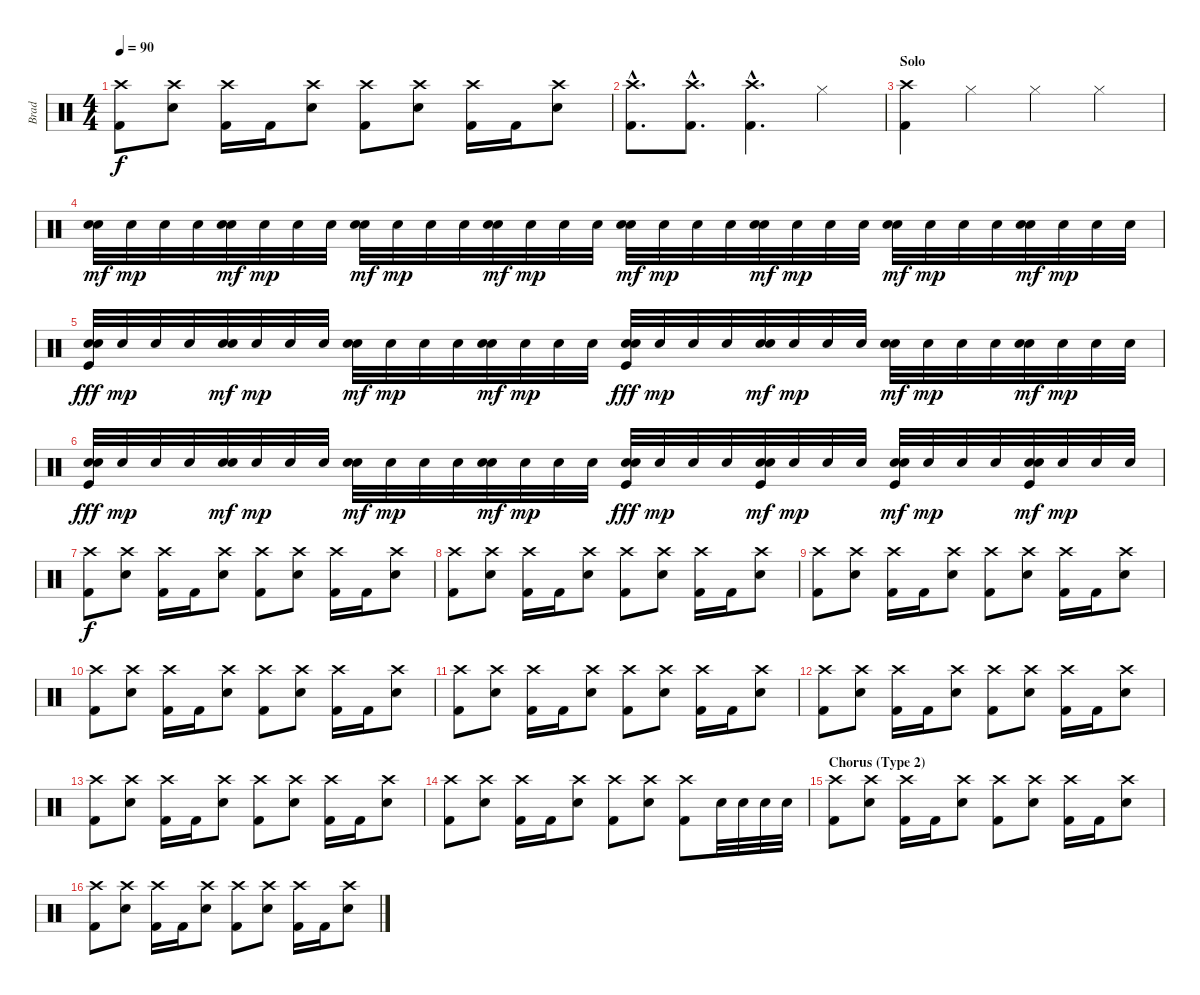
\track ("Brad" "Brad") {instrument percussion}
\staff {score}
\articulation defaults
\ts (4 4)
\tempo 90
\clef neutral
\ks c
("Crash high (hit)" "Kick (hit) 2").8{dy f} ("Crash high (hit)" "Electric Snare (hit)").8 ("Crash high (hit)" "Kick (hit) 2").16 "Kick (hit) 2".16 ("Crash high (hit)" "Electric Snare (hit)").8 ("Crash high (hit)" "Kick (hit) 2").8 ("Crash high (hit)" "Electric Snare (hit)").8 ("Crash high (hit)" "Kick (hit) 2").16 "Kick (hit) 2".16 ("Crash high (hit)" "Electric Snare (hit)").8 |
("Crash high (hit)"{hac} "Kick (hit) 2"{hac}).8{d} ("Crash high (hit)"{hac} "Kick (hit) 2"{hac}).8{d} ("Crash high (hit)"{hac} "Kick (hit) 2"{hac}).4{d} "Hi-Hat (closed)".4 |
\section ("" "Solo")
("Crash high (hit)" "Kick (hit) 2").4 "Hi-Hat (closed)".4 "Hi-Hat (closed)".4 "Hi-Hat (closed)".4 |
("Electric Snare (hit)" "Electric Snare (hit)").32{dy mf} "Electric Snare (hit)".32{dy mp} "Electric Snare (hit)".32 "Electric Snare (hit)".32 ("Electric Snare (hit)" "Electric Snare (hit)").32{dy mf} "Electric Snare (hit)".32{dy mp} "Electric Snare (hit)".32 "Electric Snare (hit)".32 ("Electric Snare (hit)" "Electric Snare (hit)").32{dy mf} "Electric Snare (hit)".32{dy mp} "Electric Snare (hit)".32 "Electric Snare (hit)".32 ("Electric Snare (hit)" "Electric Snare (hit)").32{dy mf} "Electric Snare (hit)".32{dy mp} "Electric Snare (hit)".32 "Electric Snare (hit)".32 ("Electric Snare (hit)" "Electric Snare (hit)").32{dy mf} "Electric Snare (hit)".32{dy mp} "Electric Snare (hit)".32 "Electric Snare (hit)".32 ("Electric Snare (hit)" "Electric Snare (hit)").32{dy mf} "Electric Snare (hit)".32{dy mp} "Electric Snare (hit)".32 "Electric Snare (hit)".32 ("Electric Snare (hit)" "Electric Snare (hit)").32{dy mf} "Electric Snare (hit)".32{dy mp} "Electric Snare (hit)".32 "Electric Snare (hit)".32 ("Electric Snare (hit)" "Electric Snare (hit)").32{dy mf} "Electric Snare (hit)".32{dy mp} "Electric Snare (hit)".32 "Electric Snare (hit)".32 |
("Electric Snare (hit)" "Electric Snare (hit)" "Kick (hit)").32{dy fff} "Electric Snare (hit)".32{dy mp} "Electric Snare (hit)".32 "Electric Snare (hit)".32 ("Electric Snare (hit)" "Electric Snare (hit)").32{dy mf} "Electric Snare (hit)".32{dy mp} "Electric Snare (hit)".32 "Electric Snare (hit)".32 ("Electric Snare (hit)" "Electric Snare (hit)").32{dy mf} "Electric Snare (hit)".32{dy mp} "Electric Snare (hit)".32 "Electric Snare (hit)".32 ("Electric Snare (hit)" "Electric Snare (hit)").32{dy mf} "Electric Snare (hit)".32{dy mp} "Electric Snare (hit)".32 "Electric Snare (hit)".32 ("Electric Snare (hit)" "Electric Snare (hit)" "Kick (hit)").32{dy fff} "Electric Snare (hit)".32{dy mp} "Electric Snare (hit)".32 "Electric Snare (hit)".32 ("Electric Snare (hit)" "Electric Snare (hit)").32{dy mf} "Electric Snare (hit)".32{dy mp} "Electric Snare (hit)".32 "Electric Snare (hit)".32 ("Electric Snare (hit)" "Electric Snare (hit)").32{dy mf} "Electric Snare (hit)".32{dy mp} "Electric Snare (hit)".32 "Electric Snare (hit)".32 ("Electric Snare (hit)" "Electric Snare (hit)").32{dy mf} "Electric Snare (hit)".32{dy mp} "Electric Snare (hit)".32 "Electric Snare (hit)".32 |
("Electric Snare (hit)" "Electric Snare (hit)" "Kick (hit)").32{dy fff} "Electric Snare (hit)".32{dy mp} "Electric Snare (hit)".32 "Electric Snare (hit)".32 ("Electric Snare (hit)" "Electric Snare (hit)").32{dy mf} "Electric Snare (hit)".32{dy mp} "Electric Snare (hit)".32 "Electric Snare (hit)".32 ("Electric Snare (hit)" "Electric Snare (hit)").32{dy mf} "Electric Snare (hit)".32{dy mp} "Electric Snare (hit)".32 "Electric Snare (hit)".32 ("Electric Snare (hit)" "Electric Snare (hit)").32{dy mf} "Electric Snare (hit)".32{dy mp} "Electric Snare (hit)".32 "Electric Snare (hit)".32 ("Electric Snare (hit)" "Electric Snare (hit)" "Kick (hit)").32{dy fff} "Electric Snare (hit)".32{dy mp} "Electric Snare (hit)".32 "Electric Snare (hit)".32 ("Electric Snare (hit)" "Electric Snare (hit)" "Kick (hit)").32{dy mf} "Electric Snare (hit)".32{dy mp} "Electric Snare (hit)".32 "Electric Snare (hit)".32 ("Electric Snare (hit)" "Electric Snare (hit)" "Kick (hit)").32{dy mf} "Electric Snare (hit)".32{dy mp} "Electric Snare (hit)".32 "Electric Snare (hit)".32 ("Electric Snare (hit)" "Electric Snare (hit)" "Kick (hit)").32{dy mf} "Electric Snare (hit)".32{dy mp} "Electric Snare (hit)".32 "Electric Snare (hit)".32 |
("Crash high (hit)" "Kick (hit) 2").8{dy f} ("Crash high (hit)" "Electric Snare (hit)").8 ("Crash high (hit)" "Kick (hit) 2").16 "Kick (hit) 2".16 ("Crash high (hit)" "Electric Snare (hit)").8 ("Crash high (hit)" "Kick (hit) 2").8 ("Crash high (hit)" "Electric Snare (hit)").8 ("Crash high (hit)" "Kick (hit) 2").16 "Kick (hit) 2".16 ("Crash high (hit)" "Electric Snare (hit)").8 |
("Crash high (hit)" "Kick (hit) 2").8 ("Crash high (hit)" "Electric Snare (hit)").8 ("Crash high (hit)" "Kick (hit) 2").16 "Kick (hit) 2".16 ("Crash high (hit)" "Electric Snare (hit)").8 ("Crash high (hit)" "Kick (hit) 2").8 ("Crash high (hit)" "Electric Snare (hit)").8 ("Crash high (hit)" "Kick (hit) 2").16 "Kick (hit) 2".16 ("Crash high (hit)" "Electric Snare (hit)").8 |
("Crash high (hit)" "Kick (hit) 2").8 ("Crash high (hit)" "Electric Snare (hit)").8 ("Crash high (hit)" "Kick (hit) 2").16 "Kick (hit) 2".16 ("Crash high (hit)" "Electric Snare (hit)").8 ("Crash high (hit)" "Kick (hit) 2").8 ("Crash high (hit)" "Electric Snare (hit)").8 ("Crash high (hit)" "Kick (hit) 2").16 "Kick (hit) 2".16 ("Crash high (hit)" "Electric Snare (hit)").8 |
("Crash high (hit)" "Kick (hit) 2").8 ("Crash high (hit)" "Electric Snare (hit)").8 ("Crash high (hit)" "Kick (hit) 2").16 "Kick (hit) 2".16 ("Crash high (hit)" "Electric Snare (hit)").8 ("Crash high (hit)" "Kick (hit) 2").8 ("Crash high (hit)" "Electric Snare (hit)").8 ("Crash high (hit)" "Kick (hit) 2").16 "Kick (hit) 2".16 ("Crash high (hit)" "Electric Snare (hit)").8 |
("Crash high (hit)" "Kick (hit) 2").8 ("Crash high (hit)" "Electric Snare (hit)").8 ("Crash high (hit)" "Kick (hit) 2").16 "Kick (hit) 2".16 ("Crash high (hit)" "Electric Snare (hit)").8 ("Crash high (hit)" "Kick (hit) 2").8 ("Crash high (hit)" "Electric Snare (hit)").8 ("Crash high (hit)" "Kick (hit) 2").16 "Kick (hit) 2".16 ("Crash high (hit)" "Electric Snare (hit)").8 |
("Crash high (hit)" "Kick (hit) 2").8 ("Crash high (hit)" "Electric Snare (hit)").8 ("Crash high (hit)" "Kick (hit) 2").16 "Kick (hit) 2".16 ("Crash high (hit)" "Electric Snare (hit)").8 ("Crash high (hit)" "Kick (hit) 2").8 ("Crash high (hit)" "Electric Snare (hit)").8 ("Crash high (hit)" "Kick (hit) 2").16 "Kick (hit) 2".16 ("Crash high (hit)" "Electric Snare (hit)").8 |
("Crash high (hit)" "Kick (hit) 2").8 ("Crash high (hit)" "Electric Snare (hit)").8 ("Crash high (hit)" "Kick (hit) 2").16 "Kick (hit) 2".16 ("Crash high (hit)" "Electric Snare (hit)").8 ("Crash high (hit)" "Kick (hit) 2").8 ("Crash high (hit)" "Electric Snare (hit)").8 ("Crash high (hit)" "Kick (hit) 2").16 "Kick (hit) 2".16 ("Crash high (hit)" "Electric Snare (hit)").8 |
("Crash high (hit)" "Kick (hit) 2").8 ("Crash high (hit)" "Electric Snare (hit)").8 ("Crash high (hit)" "Kick (hit) 2").16 "Kick (hit) 2".16 ("Crash high (hit)" "Electric Snare (hit)").8 ("Crash high (hit)" "Kick (hit) 2").8 ("Crash high (hit)" "Electric Snare (hit)").8 ("Crash high (hit)" "Kick (hit) 2").8 "Electric Snare (hit)".32 "Electric Snare (hit)".32 "Electric Snare (hit)".32 "Electric Snare (hit)".32 |
\section ("" "Chorus (Type 2)")
("Crash high (hit)" "Kick (hit) 2").8 ("Crash high (hit)" "Electric Snare (hit)").8 ("Crash high (hit)" "Kick (hit) 2").16 "Kick (hit) 2".16 ("Crash high (hit)" "Electric Snare (hit)").8 ("Crash high (hit)" "Kick (hit) 2").8 ("Crash high (hit)" "Electric Snare (hit)").8 ("Crash high (hit)" "Kick (hit) 2").16 "Kick (hit) 2".16 ("Crash high (hit)" "Electric Snare (hit)").8 |
("Crash high (hit)" "Kick (hit) 2").8 ("Crash high (hit)" "Electric Snare (hit)").8 ("Crash high (hit)" "Kick (hit) 2").16 "Kick (hit) 2".16 ("Crash high (hit)" "Electric Snare (hit)").8 ("Crash high (hit)" "Kick (hit) 2").8 ("Crash high (hit)" "Electric Snare (hit)").8 ("Crash high (hit)" "Kick (hit) 2").16 "Kick (hit) 2".16 ("Crash high (hit)" "Electric Snare (hit)").8
